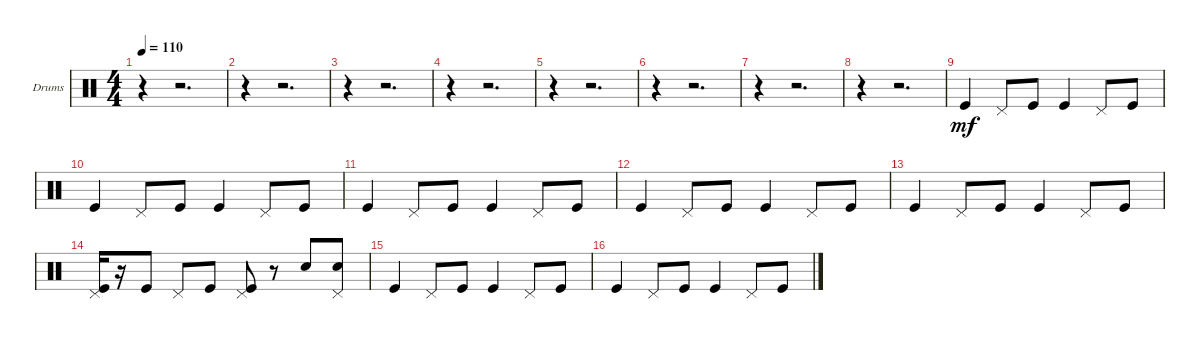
\bracketExtendMode groupsimilarinstruments
\firstSystemTrackNameOrientation horizontal
\otherSystemsTrackNameOrientation horizontal
\track ("Drumkit" "Drums") {instrument percussion}
\staff {score}
\articulation defaults
\ts (4 4)
\beaming (8 2 2 2 2)
\tempo 110
\clef neutral
\ks c
r.4{dy mf} r.2{d} |
r.4 r.2{d} |
r.4 r.2{d} |
r.4 r.2{d} |
r.4 r.2{d} |
r.4 r.2{d} |
r.4 r.2{d} |
r.4 r.2{d} |
"Kick (hit)".4 "Pedal Hi-Hat (hit)".8 "Kick (hit)".8 "Kick (hit)".4 "Pedal Hi-Hat (hit)".8 "Kick (hit)".8 |
"Kick (hit)".4 "Pedal Hi-Hat (hit)".8 "Kick (hit)".8 "Kick (hit)".4 "Pedal Hi-Hat (hit)".8 "Kick (hit)".8 |
"Kick (hit)".4 "Pedal Hi-Hat (hit)".8 "Kick (hit)".8 "Kick (hit)".4 "Pedal Hi-Hat (hit)".8 "Kick (hit)".8 |
"Kick (hit)".4 "Pedal Hi-Hat (hit)".8 "Kick (hit)".8 "Kick (hit)".4 "Pedal Hi-Hat (hit)".8 "Kick (hit)".8 |
"Kick (hit)".4 "Pedal Hi-Hat (hit)".8 "Kick (hit)".8 "Kick (hit)".4 "Pedal Hi-Hat (hit)".8 "Kick (hit)".8 |
("Kick (hit)" "Pedal Hi-Hat (hit)").16 r.16 "Kick (hit)".8 "Pedal Hi-Hat (hit)".8 "Kick (hit)".8 ("Kick (hit)" "Pedal Hi-Hat (hit)").8 r.8 "Snare (hit) 2".8 ("Pedal Hi-Hat (hit)" "Snare (hit) 2").8 |
"Kick (hit)".4 "Pedal Hi-Hat (hit)".8 "Kick (hit)".8 "Kick (hit)".4 "Pedal Hi-Hat (hit)".8 "Kick (hit)".8 |
"Kick (hit)".4 "Pedal Hi-Hat (hit)".8 "Kick (hit)".8 "Kick (hit)".4 "Pedal Hi-Hat (hit)".8 "Kick (hit)".8
